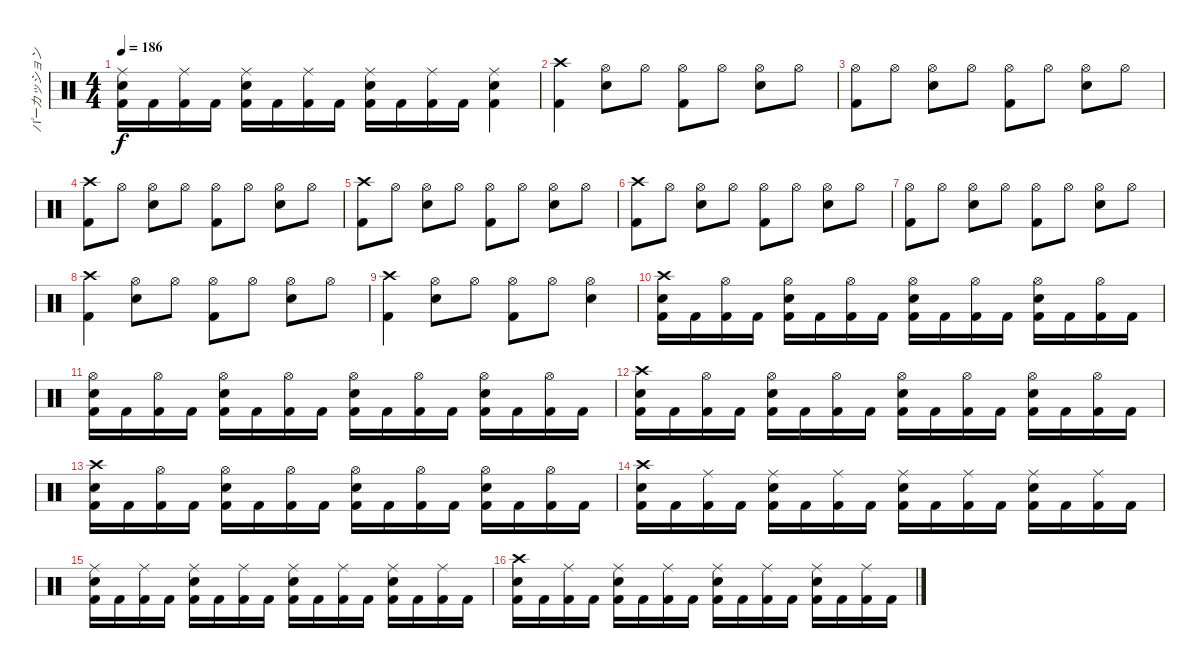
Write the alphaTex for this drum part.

\track ("パーカッション" "パーカッション") {instrument percussion}
\staff {score}
\articulation defaults
\ts (4 4)
\tempo 186
\clef neutral
\ks c
("Ride (middle)" "Snare (hit) 2" "Kick (hit) 2").16{dy f} "Kick (hit) 2".16 ("Ride (middle)" "Kick (hit) 2").16 "Kick (hit) 2".16 ("Ride (middle)" "Snare (hit) 2" "Kick (hit) 2").16 "Kick (hit) 2".16 ("Ride (middle)" "Kick (hit) 2").16 "Kick (hit) 2".16 ("Ride (middle)" "Snare (hit) 2" "Kick (hit) 2").16 "Kick (hit) 2".16 ("Ride (middle)" "Kick (hit) 2").16 "Kick (hit) 2".16 ("Ride (middle)" "Snare (hit) 2" "Kick (hit) 2").4 |
("Crash high (hit)" "Kick (hit) 2").4 ("Hi-Hat (open)" "Snare (hit) 2").8 "Hi-Hat (open)".8 ("Hi-Hat (open)" "Kick (hit) 2").8 "Hi-Hat (open)".8 ("Hi-Hat (open)" "Snare (hit) 2").8 "Hi-Hat (open)".8 |
("Hi-Hat (open)" "Kick (hit) 2").8 "Hi-Hat (open)".8 ("Hi-Hat (open)" "Snare (hit) 2").8 "Hi-Hat (open)".8 ("Hi-Hat (open)" "Kick (hit) 2").8 "Hi-Hat (open)".8 ("Hi-Hat (open)" "Snare (hit) 2").8 "Hi-Hat (open)".8 |
("Crash high (hit)" "Kick (hit) 2").8 "Hi-Hat (open)".8 ("Hi-Hat (open)" "Snare (hit) 2").8 "Hi-Hat (open)".8 ("Hi-Hat (open)" "Kick (hit) 2").8 "Hi-Hat (open)".8 ("Hi-Hat (open)" "Snare (hit) 2").8 "Hi-Hat (open)".8 |
("Crash high (hit)" "Kick (hit) 2").8 "Hi-Hat (open)".8 ("Hi-Hat (open)" "Snare (hit) 2").8 "Hi-Hat (open)".8 ("Hi-Hat (open)" "Kick (hit) 2").8 "Hi-Hat (open)".8 ("Hi-Hat (open)" "Snare (hit) 2").8 "Hi-Hat (open)".8 |
("Crash high (hit)" "Kick (hit) 2").8 "Hi-Hat (open)".8 ("Hi-Hat (open)" "Snare (hit) 2").8 "Hi-Hat (open)".8 ("Hi-Hat (open)" "Kick (hit) 2").8 "Hi-Hat (open)".8 ("Hi-Hat (open)" "Snare (hit) 2").8 "Hi-Hat (open)".8 |
("Hi-Hat (open)" "Kick (hit) 2").8 "Hi-Hat (open)".8 ("Hi-Hat (open)" "Snare (hit) 2").8 "Hi-Hat (open)".8 ("Hi-Hat (open)" "Kick (hit) 2").8 "Hi-Hat (open)".8 ("Hi-Hat (open)" "Snare (hit) 2").8 "Hi-Hat (open)".8 |
("Crash high (hit)" "Kick (hit) 2").4 ("Hi-Hat (open)" "Snare (hit) 2").8 "Hi-Hat (open)".8 ("Hi-Hat (open)" "Kick (hit) 2").8 "Hi-Hat (open)".8 ("Hi-Hat (open)" "Snare (hit) 2").8 "Hi-Hat (open)".8 |
("Crash high (hit)" "Kick (hit) 2").4 ("Hi-Hat (open)" "Snare (hit) 2").8 "Hi-Hat (open)".8 ("Hi-Hat (open)" "Kick (hit) 2").8 "Hi-Hat (open)".8 ("Hi-Hat (open)" "Snare (hit) 2").4 |
("Crash high (hit)" "Snare (hit) 2" "Kick (hit) 2").16 "Kick (hit) 2".16 ("Hi-Hat (open)" "Kick (hit) 2").16 "Kick (hit) 2".16 ("Hi-Hat (open)" "Snare (hit) 2" "Kick (hit) 2").16 "Kick (hit) 2".16 ("Hi-Hat (open)" "Kick (hit) 2").16 "Kick (hit) 2".16 ("Hi-Hat (open)" "Snare (hit) 2" "Kick (hit) 2").16 "Kick (hit) 2".16 ("Hi-Hat (open)" "Kick (hit) 2").16 "Kick (hit) 2".16 ("Hi-Hat (open)" "Snare (hit) 2" "Kick (hit) 2").16 "Kick (hit) 2".16 ("Hi-Hat (open)" "Kick (hit) 2").16 "Kick (hit) 2".16 |
("Hi-Hat (open)" "Snare (hit) 2" "Kick (hit) 2").16 "Kick (hit) 2".16 ("Hi-Hat (open)" "Kick (hit) 2").16 "Kick (hit) 2".16 ("Hi-Hat (open)" "Snare (hit) 2" "Kick (hit) 2").16 "Kick (hit) 2".16 ("Hi-Hat (open)" "Kick (hit) 2").16 "Kick (hit) 2".16 ("Hi-Hat (open)" "Snare (hit) 2" "Kick (hit) 2").16 "Kick (hit) 2".16 ("Hi-Hat (open)" "Kick (hit) 2").16 "Kick (hit) 2".16 ("Hi-Hat (open)" "Snare (hit) 2" "Kick (hit) 2").16 "Kick (hit) 2".16 ("Hi-Hat (open)" "Kick (hit) 2").16 "Kick (hit) 2".16 |
("Crash high (hit)" "Snare (hit) 2" "Kick (hit) 2").16 "Kick (hit) 2".16 ("Hi-Hat (open)" "Kick (hit) 2").16 "Kick (hit) 2".16 ("Hi-Hat (open)" "Snare (hit) 2" "Kick (hit) 2").16 "Kick (hit) 2".16 ("Hi-Hat (open)" "Kick (hit) 2").16 "Kick (hit) 2".16 ("Hi-Hat (open)" "Snare (hit) 2" "Kick (hit) 2").16 "Kick (hit) 2".16 ("Hi-Hat (open)" "Kick (hit) 2").16 "Kick (hit) 2".16 ("Hi-Hat (open)" "Snare (hit) 2" "Kick (hit) 2").16 "Kick (hit) 2".16 ("Hi-Hat (open)" "Kick (hit) 2").16 "Kick (hit) 2".16 |
("Crash high (hit)" "Snare (hit) 2" "Kick (hit) 2").16 "Kick (hit) 2".16 ("Hi-Hat (open)" "Kick (hit) 2").16 "Kick (hit) 2".16 ("Hi-Hat (open)" "Snare (hit) 2" "Kick (hit) 2").16 "Kick (hit) 2".16 ("Hi-Hat (open)" "Kick (hit) 2").16 "Kick (hit) 2".16 ("Hi-Hat (open)" "Snare (hit) 2" "Kick (hit) 2").16 "Kick (hit) 2".16 ("Hi-Hat (open)" "Kick (hit) 2").16 "Kick (hit) 2".16 ("Hi-Hat (open)" "Snare (hit) 2" "Kick (hit) 2").16 "Kick (hit) 2".16 ("Hi-Hat (open)" "Kick (hit) 2").16 "Kick (hit) 2".16 |
("Crash high (hit)" "Snare (hit) 2" "Kick (hit) 2").16 "Kick (hit) 2".16 ("Ride (middle)" "Kick (hit) 2").16 "Kick (hit) 2".16 ("Ride (middle)" "Snare (hit) 2" "Kick (hit) 2").16 "Kick (hit) 2".16 ("Ride (middle)" "Kick (hit) 2").16 "Kick (hit) 2".16 ("Ride (middle)" "Snare (hit) 2" "Kick (hit) 2").16 "Kick (hit) 2".16 ("Ride (middle)" "Kick (hit) 2").16 "Kick (hit) 2".16 ("Ride (middle)" "Snare (hit) 2" "Kick (hit) 2").16 "Kick (hit) 2".16 ("Ride (middle)" "Kick (hit) 2").16 "Kick (hit) 2".16 |
("Ride (middle)" "Snare (hit) 2" "Kick (hit) 2").16 "Kick (hit) 2".16 ("Ride (middle)" "Kick (hit) 2").16 "Kick (hit) 2".16 ("Ride (middle)" "Snare (hit) 2" "Kick (hit) 2").16 "Kick (hit) 2".16 ("Ride (middle)" "Kick (hit) 2").16 "Kick (hit) 2".16 ("Ride (middle)" "Snare (hit) 2" "Kick (hit) 2").16 "Kick (hit) 2".16 ("Ride (middle)" "Kick (hit) 2").16 "Kick (hit) 2".16 ("Ride (middle)" "Snare (hit) 2" "Kick (hit) 2").16 "Kick (hit) 2".16 ("Ride (middle)" "Kick (hit) 2").16 "Kick (hit) 2".16 |
("Crash high (hit)" "Snare (hit) 2" "Kick (hit) 2").16 "Kick (hit) 2".16 ("Ride (middle)" "Kick (hit) 2").16 "Kick (hit) 2".16 ("Ride (middle)" "Snare (hit) 2" "Kick (hit) 2").16 "Kick (hit) 2".16 ("Ride (middle)" "Kick (hit) 2").16 "Kick (hit) 2".16 ("Ride (middle)" "Snare (hit) 2" "Kick (hit) 2").16 "Kick (hit) 2".16 ("Ride (middle)" "Kick (hit) 2").16 "Kick (hit) 2".16 ("Ride (middle)" "Snare (hit) 2" "Kick (hit) 2").16 "Kick (hit) 2".16 ("Ride (middle)" "Kick (hit) 2").16 "Kick (hit) 2".16
